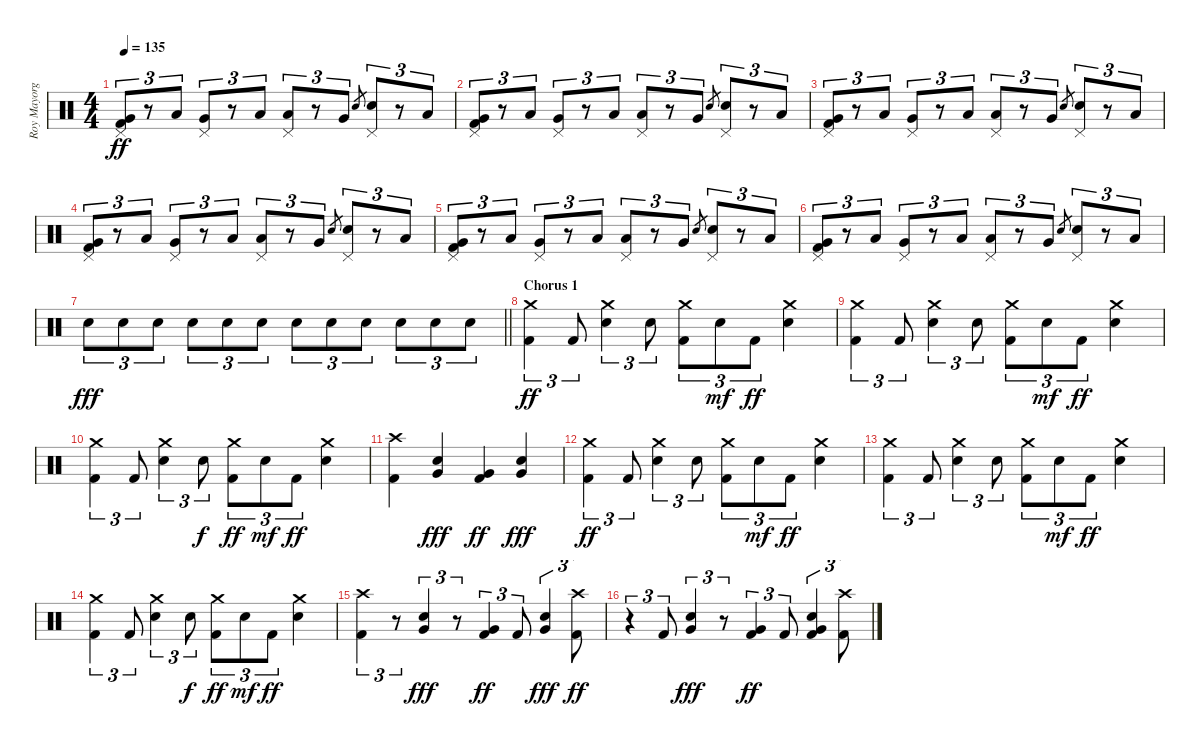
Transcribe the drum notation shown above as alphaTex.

\track ("Roy Mayorga" "Roy Mayorg") {instrument percussion}
\staff {score}
\articulation defaults
\ts (4 4)
\tempo 135
\clef neutral
\ks c
("Pedal Hi-Hat (hit)" "Very Low Tom (hit)" "Kick (hit) 2").8{tu (3 2) dy ff} r.8{tu (3 2)} "Low Tom (hit)".8{tu (3 2)} ("Very Low Tom (hit)" "Pedal Hi-Hat (hit)").8{tu (3 2)} r.8{tu (3 2)} "Low Tom (hit)".8{tu (3 2)} ("Low Floor Tom (hit)" "Pedal Hi-Hat (hit)").8{tu (3 2)} r.8{tu (3 2)} "Very Low Tom (hit)".8{tu (3 2)} "Electric Snare (hit)".8{gr} ("Electric Snare (hit)" "Pedal Hi-Hat (hit)").8{tu (3 2)} r.8{tu (3 2)} "Low Floor Tom (hit)".8{tu (3 2)} |
("Pedal Hi-Hat (hit)" "Very Low Tom (hit)" "Kick (hit) 2").8{tu (3 2)} r.8{tu (3 2)} "Low Tom (hit)".8{tu (3 2)} ("Very Low Tom (hit)" "Pedal Hi-Hat (hit)").8{tu (3 2)} r.8{tu (3 2)} "Low Tom (hit)".8{tu (3 2)} ("Low Floor Tom (hit)" "Pedal Hi-Hat (hit)").8{tu (3 2)} r.8{tu (3 2)} "Very Low Tom (hit)".8{tu (3 2)} "Electric Snare (hit)".8{gr} ("Electric Snare (hit)" "Pedal Hi-Hat (hit)").8{tu (3 2)} r.8{tu (3 2)} "Low Floor Tom (hit)".8{tu (3 2)} |
("Pedal Hi-Hat (hit)" "Very Low Tom (hit)" "Kick (hit) 2").8{tu (3 2)} r.8{tu (3 2)} "Low Tom (hit)".8{tu (3 2)} ("Very Low Tom (hit)" "Pedal Hi-Hat (hit)").8{tu (3 2)} r.8{tu (3 2)} "Low Tom (hit)".8{tu (3 2)} ("Low Floor Tom (hit)" "Pedal Hi-Hat (hit)").8{tu (3 2)} r.8{tu (3 2)} "Very Low Tom (hit)".8{tu (3 2)} "Electric Snare (hit)".8{gr} ("Electric Snare (hit)" "Pedal Hi-Hat (hit)").8{tu (3 2)} r.8{tu (3 2)} "Low Floor Tom (hit)".8{tu (3 2)} |
("Pedal Hi-Hat (hit)" "Very Low Tom (hit)" "Kick (hit) 2").8{tu (3 2)} r.8{tu (3 2)} "Low Tom (hit)".8{tu (3 2)} ("Very Low Tom (hit)" "Pedal Hi-Hat (hit)").8{tu (3 2)} r.8{tu (3 2)} "Low Tom (hit)".8{tu (3 2)} ("Low Floor Tom (hit)" "Pedal Hi-Hat (hit)").8{tu (3 2)} r.8{tu (3 2)} "Very Low Tom (hit)".8{tu (3 2)} "Electric Snare (hit)".8{gr} ("Electric Snare (hit)" "Pedal Hi-Hat (hit)").8{tu (3 2)} r.8{tu (3 2)} "Low Floor Tom (hit)".8{tu (3 2)} |
("Pedal Hi-Hat (hit)" "Very Low Tom (hit)" "Kick (hit) 2").8{tu (3 2)} r.8{tu (3 2)} "Low Tom (hit)".8{tu (3 2)} ("Very Low Tom (hit)" "Pedal Hi-Hat (hit)").8{tu (3 2)} r.8{tu (3 2)} "Low Tom (hit)".8{tu (3 2)} ("Low Floor Tom (hit)" "Pedal Hi-Hat (hit)").8{tu (3 2)} r.8{tu (3 2)} "Very Low Tom (hit)".8{tu (3 2)} "Electric Snare (hit)".8{gr} ("Electric Snare (hit)" "Pedal Hi-Hat (hit)").8{tu (3 2)} r.8{tu (3 2)} "Low Floor Tom (hit)".8{tu (3 2)} |
("Pedal Hi-Hat (hit)" "Very Low Tom (hit)" "Kick (hit) 2").8{tu (3 2)} r.8{tu (3 2)} "Low Tom (hit)".8{tu (3 2)} ("Very Low Tom (hit)" "Pedal Hi-Hat (hit)").8{tu (3 2)} r.8{tu (3 2)} "Low Tom (hit)".8{tu (3 2)} ("Low Floor Tom (hit)" "Pedal Hi-Hat (hit)").8{tu (3 2)} r.8{tu (3 2)} "Very Low Tom (hit)".8{tu (3 2)} "Electric Snare (hit)".8{gr} ("Electric Snare (hit)" "Pedal Hi-Hat (hit)").8{tu (3 2)} r.8{tu (3 2)} "Low Floor Tom (hit)".8{tu (3 2)} |
\barLineRight lightlight "Electric Snare (hit)".8{tu (3 2) dy fff} "Electric Snare (hit)".8{tu (3 2)} "Electric Snare (hit)".8{tu (3 2)} "Electric Snare (hit)".8{tu (3 2)} "Electric Snare (hit)".8{tu (3 2)} "Electric Snare (hit)".8{tu (3 2)} "Electric Snare (hit)".8{tu (3 2)} "Electric Snare (hit)".8{tu (3 2)} "Electric Snare (hit)".8{tu (3 2)} "Electric Snare (hit)".8{tu (3 2)} "Electric Snare (hit)".8{tu (3 2)} "Electric Snare (hit)".8{tu (3 2)}
|
\section ("" "Chorus 1")
("Crash medium (hit)" "Kick (hit) 2").4{tu (3 2) dy ff} "Kick (hit) 2".8{tu (3 2)} ("Crash medium (hit)" "Electric Snare (hit)").4{tu (3 2)} "Electric Snare (hit)".8{tu (3 2)} ("Crash medium (hit)" "Kick (hit) 2").8{tu (3 2)} "Electric Snare (hit)".8{tu (3 2) dy mf} "Kick (hit) 2".8{tu (3 2) dy ff} ("Crash medium (hit)" "Electric Snare (hit)").4 |
("Crash medium (hit)" "Kick (hit) 2").4{tu (3 2)} "Kick (hit) 2".8{tu (3 2)} ("Crash medium (hit)" "Electric Snare (hit)").4{tu (3 2)} "Electric Snare (hit)".8{tu (3 2)} ("Crash medium (hit)" "Kick (hit) 2").8{tu (3 2)} "Electric Snare (hit)".8{tu (3 2) dy mf} "Kick (hit) 2".8{tu (3 2) dy ff} ("Crash medium (hit)" "Electric Snare (hit)").4 |
("Crash medium (hit)" "Kick (hit) 2").4{tu (3 2)} "Kick (hit) 2".8{tu (3 2)} ("Crash medium (hit)" "Electric Snare (hit)").4{tu (3 2)} "Electric Snare (hit)".8{tu (3 2) dy f} ("Crash medium (hit)" "Kick (hit) 2").8{tu (3 2) dy ff} "Electric Snare (hit)".8{tu (3 2) dy mf} "Kick (hit) 2".8{tu (3 2) dy ff} ("Crash medium (hit)" "Electric Snare (hit)").4 |
("Crash high (hit)" "Kick (hit) 2").4 ("Electric Snare (hit)" "Very Low Tom (hit)").4{dy fff} ("Very Low Tom (hit)" "Kick (hit) 2").4{dy ff} ("Electric Snare (hit)" "Very Low Tom (hit)").4{dy fff} |
("Crash medium (hit)" "Kick (hit) 2").4{tu (3 2) dy ff} "Kick (hit) 2".8{tu (3 2)} ("Crash medium (hit)" "Electric Snare (hit)").4{tu (3 2)} "Electric Snare (hit)".8{tu (3 2)} ("Crash medium (hit)" "Kick (hit) 2").8{tu (3 2)} "Electric Snare (hit)".8{tu (3 2) dy mf} "Kick (hit) 2".8{tu (3 2) dy ff} ("Crash medium (hit)" "Electric Snare (hit)").4 |
("Crash medium (hit)" "Kick (hit) 2").4{tu (3 2)} "Kick (hit) 2".8{tu (3 2)} ("Crash medium (hit)" "Electric Snare (hit)").4{tu (3 2)} "Electric Snare (hit)".8{tu (3 2)} ("Crash medium (hit)" "Kick (hit) 2").8{tu (3 2)} "Electric Snare (hit)".8{tu (3 2) dy mf} "Kick (hit) 2".8{tu (3 2) dy ff} ("Crash medium (hit)" "Electric Snare (hit)").4 |
("Crash medium (hit)" "Kick (hit) 2").4{tu (3 2)} "Kick (hit) 2".8{tu (3 2)} ("Crash medium (hit)" "Electric Snare (hit)").4{tu (3 2)} "Electric Snare (hit)".8{tu (3 2) dy f} ("Crash medium (hit)" "Kick (hit) 2").8{tu (3 2) dy ff} "Electric Snare (hit)".8{tu (3 2) dy mf} "Kick (hit) 2".8{tu (3 2) dy ff} ("Crash medium (hit)" "Electric Snare (hit)").4 |
("Crash high (hit)" "Kick (hit) 2").4{tu (3 2)} r.8{tu (3 2)} ("Electric Snare (hit)" "Very Low Tom (hit)").4{tu (3 2) dy fff} r.8{tu (3 2)} ("Very Low Tom (hit)" "Kick (hit) 2").4{tu (3 2) dy ff} "Kick (hit) 2".8{tu (3 2)} ("Electric Snare (hit)" "Very Low Tom (hit)").4{tu (3 2) dy fff} ("Crash high (hit)" "Kick (hit) 2").8{tu (3 2) dy ff} |
r.4{tu (3 2)} "Kick (hit) 2".8{tu (3 2)} ("Electric Snare (hit)" "Very Low Tom (hit)").4{tu (3 2) dy fff} r.8{tu (3 2)} ("Very Low Tom (hit)" "Kick (hit) 2").4{tu (3 2) dy ff} "Kick (hit) 2".8{tu (3 2)} ("Electric Snare (hit)" "Very Low Tom (hit)" "Kick (hit) 2").4{tu (3 2)} ("Crash high (hit)" "Kick (hit) 2").8{tu (3 2)}
